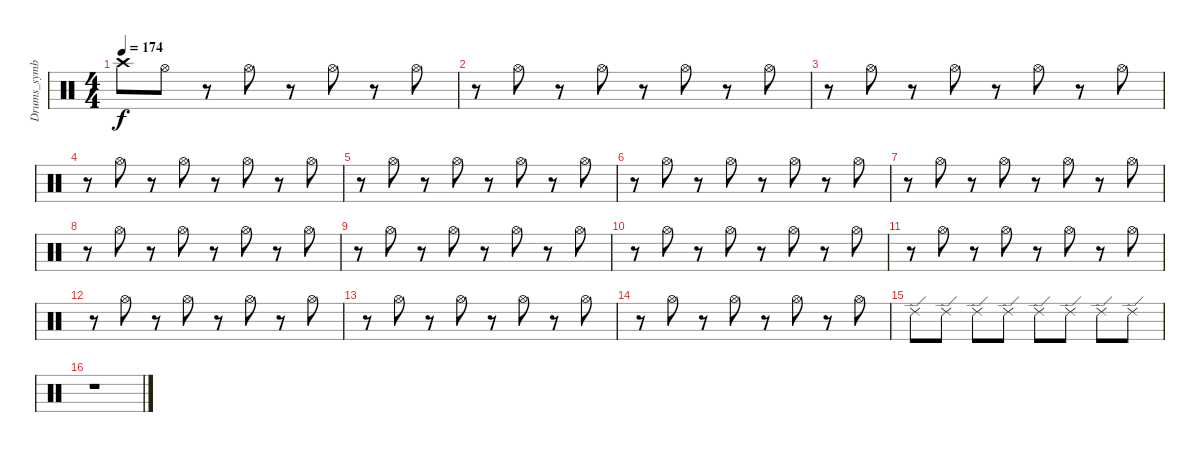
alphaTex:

\track ("Drums_symbal" "Drums_symb") {instrument percussion}
\staff {score}
\articulation defaults
\ts (4 4)
\tempo 174
\clef neutral
\ks c "Crash high (hit)".8{dy f} "Hi-Hat (open)".8
r.8 "Hi-Hat (open)".8 r.8 "Hi-Hat (open)".8 r.8 "Hi-Hat (open)".8 |
r.8 "Hi-Hat (open)".8 r.8 "Hi-Hat (open)".8 r.8 "Hi-Hat (open)".8 r.8 "Hi-Hat (open)".8 |
r.8 "Hi-Hat (open)".8 r.8 "Hi-Hat (open)".8 r.8 "Hi-Hat (open)".8 r.8 "Hi-Hat (open)".8 |
r.8 "Hi-Hat (open)".8 r.8 "Hi-Hat (open)".8 r.8 "Hi-Hat (open)".8 r.8 "Hi-Hat (open)".8 |
r.8 "Hi-Hat (open)".8 r.8 "Hi-Hat (open)".8 r.8 "Hi-Hat (open)".8 r.8 "Hi-Hat (open)".8 |
r.8 "Hi-Hat (open)".8 r.8 "Hi-Hat (open)".8 r.8 "Hi-Hat (open)".8 r.8 "Hi-Hat (open)".8 |
r.8 "Hi-Hat (open)".8 r.8 "Hi-Hat (open)".8 r.8 "Hi-Hat (open)".8 r.8 "Hi-Hat (open)".8 |
r.8 "Hi-Hat (open)".8 r.8 "Hi-Hat (open)".8 r.8 "Hi-Hat (open)".8 r.8 "Hi-Hat (open)".8 |
r.8 "Hi-Hat (open)".8 r.8 "Hi-Hat (open)".8 r.8 "Hi-Hat (open)".8 r.8 "Hi-Hat (open)".8 |
r.8 "Hi-Hat (open)".8 r.8 "Hi-Hat (open)".8 r.8 "Hi-Hat (open)".8 r.8 "Hi-Hat (open)".8 |
r.8 "Hi-Hat (open)".8 r.8 "Hi-Hat (open)".8 r.8 "Hi-Hat (open)".8 r.8 "Hi-Hat (open)".8 |
r.8 "Hi-Hat (open)".8 r.8 "Hi-Hat (open)".8 r.8 "Hi-Hat (open)".8 r.8 "Hi-Hat (open)".8 |
r.8 "Hi-Hat (open)".8 r.8 "Hi-Hat (open)".8 r.8 "Hi-Hat (open)".8 r.8 "Hi-Hat (open)".8 |
r.8 "Hi-Hat (open)".8 r.8 "Hi-Hat (open)".8 r.8 "Hi-Hat (open)".8 r.8 "Hi-Hat (open)".8 |
"Ride (edge) 2".8 "Ride (edge) 2".8 "Ride (edge) 2".8 "Ride (edge) 2".8 "Ride (edge) 2".8 "Ride (edge) 2".8 "Ride (edge) 2".8 "Ride (edge) 2".8 |
r.1
